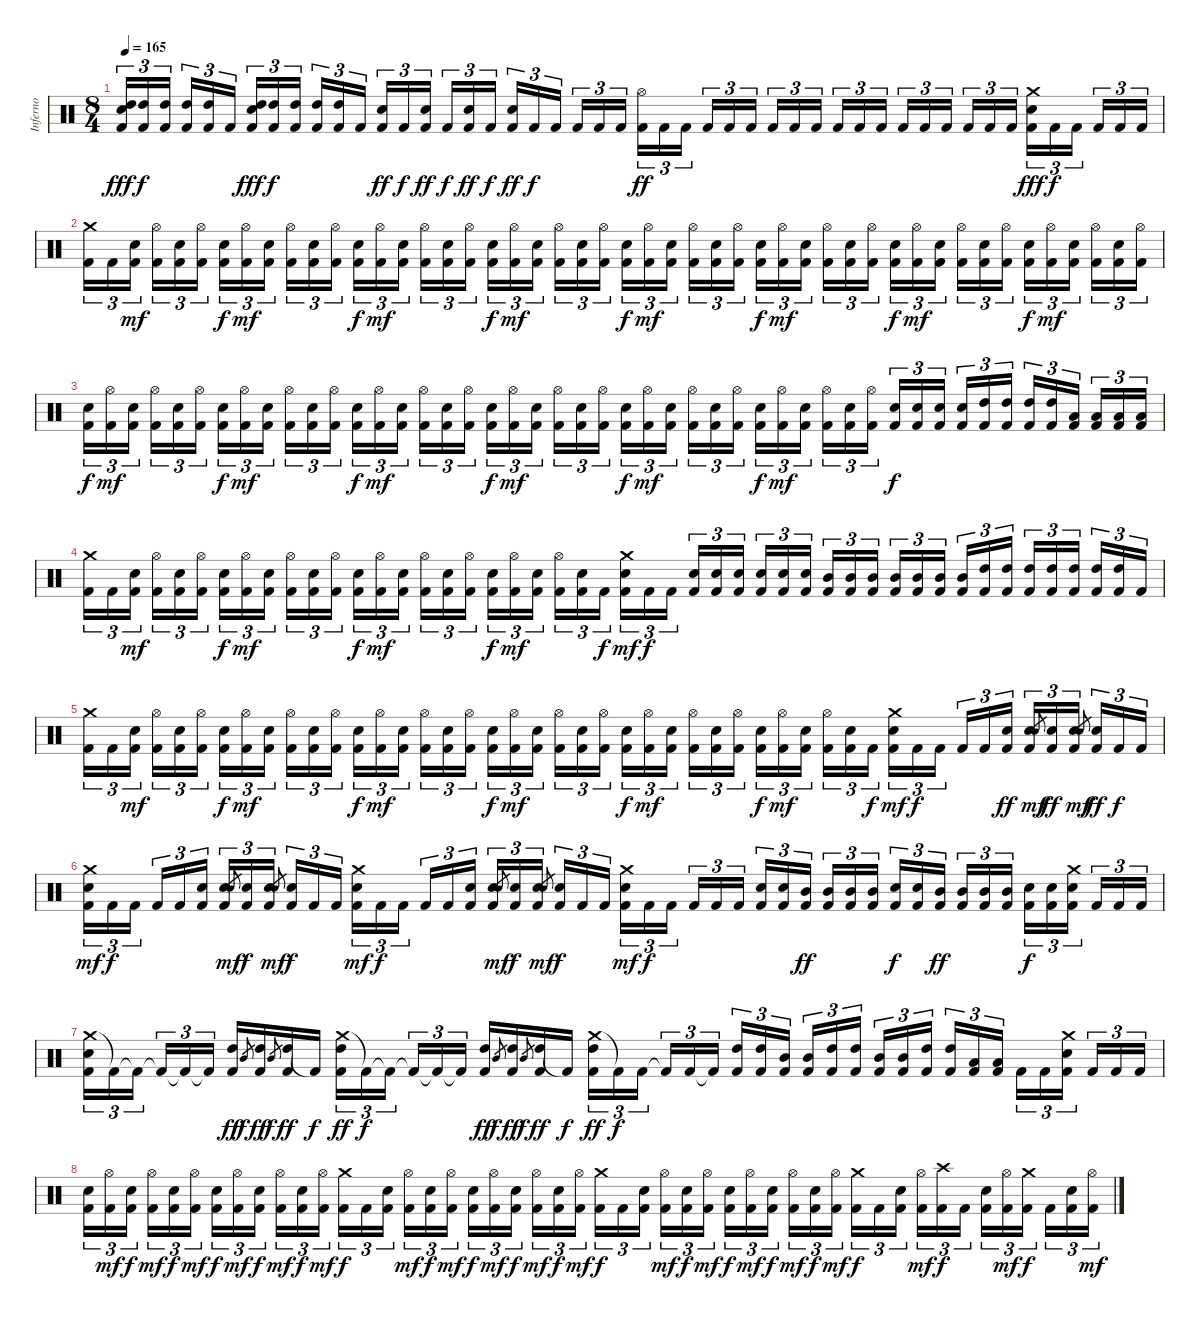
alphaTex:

\track ("Inferno" "Inferno") {instrument percussion}
\staff {score}
\articulation defaults
\ts (8 4)
\tempo 165
\clef neutral
\ks c
("Snare (hit) 2" "High Tom (hit)" "Kick (hit) 2").16{tu (3 2) dy fff} ("High Tom (hit)" "Kick (hit) 2").16{tu (3 2) dy f} ("High Tom (hit)" "Kick (hit) 2").16{tu (3 2) beam splitsecondary} ("High Tom (hit)" "Kick (hit) 2").16{tu (3 2)} ("High Tom (hit)" "Kick (hit) 2").16{tu (3 2)} "Kick (hit) 2".16{tu (3 2)} ("Snare (hit) 2" "High Tom (hit)" "Kick (hit) 2").16{tu (3 2) dy fff} ("High Tom (hit)" "Kick (hit) 2").16{tu (3 2) dy f} ("High Tom (hit)" "Kick (hit) 2").16{tu (3 2) beam splitsecondary} ("High Tom (hit)" "Kick (hit) 2").16{tu (3 2)} ("High Tom (hit)" "Kick (hit) 2").16{tu (3 2)} "Kick (hit) 2".16{tu (3 2)} ("Snare (hit) 2" "Kick (hit) 2").16{tu (3 2) dy ff} "Kick (hit) 2".16{tu (3 2) dy f} ("Snare (hit) 2" "Kick (hit) 2").16{tu (3 2) dy ff beam splitsecondary} "Kick (hit) 2".16{tu (3 2) dy f} ("Snare (hit) 2" "Kick (hit) 2").16{tu (3 2) dy ff} "Kick (hit) 2".16{tu (3 2) dy f} ("Snare (hit) 2" "Kick (hit) 2").16{tu (3 2) dy ff} "Kick (hit) 2".16{tu (3 2) dy f} "Kick (hit) 2".16{tu (3 2) beam splitsecondary} "Kick (hit) 2".16{tu (3 2)} "Kick (hit) 2".16{tu (3 2)} "Kick (hit) 2".16{tu (3 2)} ("Hi-Hat (open)" "Kick (hit) 2").16{tu (3 2) dy ff} "Kick (hit) 2".16{tu (3 2)} "Kick (hit) 2".16{tu (3 2) beam splitsecondary} "Kick (hit) 2".16{tu (3 2)} "Kick (hit) 2".16{tu (3 2)} "Kick (hit) 2".16{tu (3 2)} "Kick (hit) 2".16{tu (3 2)} "Kick (hit) 2".16{tu (3 2)} "Kick (hit) 2".16{tu (3 2) beam splitsecondary} "Kick (hit) 2".16{tu (3 2)} "Kick (hit) 2".16{tu (3 2)} "Kick (hit) 2".16{tu (3 2)} "Kick (hit) 2".16{tu (3 2)} "Kick (hit) 2".16{tu (3 2)} "Kick (hit) 2".16{tu (3 2) beam splitsecondary} "Kick (hit) 2".16{tu (3 2)} "Kick (hit) 2".16{tu (3 2)} "Kick (hit) 2".16{tu (3 2)} ("Crash medium (hit)" "Snare (hit) 2" "Kick (hit) 2").16{tu (3 2) dy fff} "Kick (hit) 2".16{tu (3 2) dy f} "Kick (hit) 2".16{tu (3 2) beam splitsecondary} "Kick (hit) 2".16{tu (3 2)} "Kick (hit) 2".16{tu (3 2)} "Kick (hit) 2".16{tu (3 2)} |
("Crash medium (hit)" "Kick (hit) 2").16{tu (3 2)} "Kick (hit) 2".16{tu (3 2)} ("Snare (hit) 2" "Kick (hit) 2").16{tu (3 2) dy mf beam splitsecondary} ("Hi-Hat (open)" "Kick (hit) 2").16{tu (3 2)} ("Snare (hit) 2" "Kick (hit) 2").16{tu (3 2)} ("Hi-Hat (open)" "Kick (hit) 2").16{tu (3 2)} ("Snare (hit) 2" "Kick (hit) 2").16{tu (3 2) dy f} ("Hi-Hat (open)" "Kick (hit) 2").16{tu (3 2) dy mf} ("Snare (hit) 2" "Kick (hit) 2").16{tu (3 2) beam splitsecondary} ("Hi-Hat (open)" "Kick (hit) 2").16{tu (3 2)} ("Snare (hit) 2" "Kick (hit) 2").16{tu (3 2)} ("Hi-Hat (open)" "Kick (hit) 2").16{tu (3 2)} ("Snare (hit) 2" "Kick (hit) 2").16{tu (3 2) dy f} ("Hi-Hat (open)" "Kick (hit) 2").16{tu (3 2) dy mf} ("Snare (hit) 2" "Kick (hit) 2").16{tu (3 2) beam splitsecondary} ("Hi-Hat (open)" "Kick (hit) 2").16{tu (3 2)} ("Snare (hit) 2" "Kick (hit) 2").16{tu (3 2)} ("Hi-Hat (open)" "Kick (hit) 2").16{tu (3 2)} ("Snare (hit) 2" "Kick (hit) 2").16{tu (3 2) dy f} ("Hi-Hat (open)" "Kick (hit) 2").16{tu (3 2) dy mf} ("Snare (hit) 2" "Kick (hit) 2").16{tu (3 2) beam splitsecondary} ("Hi-Hat (open)" "Kick (hit) 2").16{tu (3 2)} ("Snare (hit) 2" "Kick (hit) 2").16{tu (3 2)} ("Hi-Hat (open)" "Kick (hit) 2").16{tu (3 2)} ("Snare (hit) 2" "Kick (hit) 2").16{tu (3 2) dy f} ("Hi-Hat (open)" "Kick (hit) 2").16{tu (3 2) dy mf} ("Snare (hit) 2" "Kick (hit) 2").16{tu (3 2) beam splitsecondary} ("Hi-Hat (open)" "Kick (hit) 2").16{tu (3 2)} ("Snare (hit) 2" "Kick (hit) 2").16{tu (3 2)} ("Hi-Hat (open)" "Kick (hit) 2").16{tu (3 2)} ("Snare (hit) 2" "Kick (hit) 2").16{tu (3 2) dy f} ("Hi-Hat (open)" "Kick (hit) 2").16{tu (3 2) dy mf} ("Snare (hit) 2" "Kick (hit) 2").16{tu (3 2) beam splitsecondary} ("Hi-Hat (open)" "Kick (hit) 2").16{tu (3 2)} ("Snare (hit) 2" "Kick (hit) 2").16{tu (3 2)} ("Hi-Hat (open)" "Kick (hit) 2").16{tu (3 2)} ("Snare (hit) 2" "Kick (hit) 2").16{tu (3 2) dy f} ("Hi-Hat (open)" "Kick (hit) 2").16{tu (3 2) dy mf} ("Snare (hit) 2" "Kick (hit) 2").16{tu (3 2) beam splitsecondary} ("Hi-Hat (open)" "Kick (hit) 2").16{tu (3 2)} ("Snare (hit) 2" "Kick (hit) 2").16{tu (3 2)} ("Hi-Hat (open)" "Kick (hit) 2").16{tu (3 2)} ("Snare (hit) 2" "Kick (hit) 2").16{tu (3 2) dy f} ("Hi-Hat (open)" "Kick (hit) 2").16{tu (3 2) dy mf} ("Snare (hit) 2" "Kick (hit) 2").16{tu (3 2) beam splitsecondary} ("Hi-Hat (open)" "Kick (hit) 2").16{tu (3 2)} ("Snare (hit) 2" "Kick (hit) 2").16{tu (3 2)} ("Hi-Hat (open)" "Kick (hit) 2").16{tu (3 2)} |
("Snare (hit) 2" "Kick (hit) 2").16{tu (3 2) dy f} ("Hi-Hat (open)" "Kick (hit) 2").16{tu (3 2) dy mf} ("Snare (hit) 2" "Kick (hit) 2").16{tu (3 2) beam splitsecondary} ("Hi-Hat (open)" "Kick (hit) 2").16{tu (3 2)} ("Snare (hit) 2" "Kick (hit) 2").16{tu (3 2)} ("Hi-Hat (open)" "Kick (hit) 2").16{tu (3 2)} ("Snare (hit) 2" "Kick (hit) 2").16{tu (3 2) dy f} ("Hi-Hat (open)" "Kick (hit) 2").16{tu (3 2) dy mf} ("Snare (hit) 2" "Kick (hit) 2").16{tu (3 2) beam splitsecondary} ("Hi-Hat (open)" "Kick (hit) 2").16{tu (3 2)} ("Snare (hit) 2" "Kick (hit) 2").16{tu (3 2)} ("Hi-Hat (open)" "Kick (hit) 2").16{tu (3 2)} ("Snare (hit) 2" "Kick (hit) 2").16{tu (3 2) dy f} ("Hi-Hat (open)" "Kick (hit) 2").16{tu (3 2) dy mf} ("Snare (hit) 2" "Kick (hit) 2").16{tu (3 2) beam splitsecondary} ("Hi-Hat (open)" "Kick (hit) 2").16{tu (3 2)} ("Snare (hit) 2" "Kick (hit) 2").16{tu (3 2)} ("Hi-Hat (open)" "Kick (hit) 2").16{tu (3 2)} ("Snare (hit) 2" "Kick (hit) 2").16{tu (3 2) dy f} ("Hi-Hat (open)" "Kick (hit) 2").16{tu (3 2) dy mf} ("Snare (hit) 2" "Kick (hit) 2").16{tu (3 2) beam splitsecondary} ("Hi-Hat (open)" "Kick (hit) 2").16{tu (3 2)} ("Snare (hit) 2" "Kick (hit) 2").16{tu (3 2)} ("Hi-Hat (open)" "Kick (hit) 2").16{tu (3 2)} ("Snare (hit) 2" "Kick (hit) 2").16{tu (3 2) dy f} ("Hi-Hat (open)" "Kick (hit) 2").16{tu (3 2) dy mf} ("Snare (hit) 2" "Kick (hit) 2").16{tu (3 2) beam splitsecondary} ("Hi-Hat (open)" "Kick (hit) 2").16{tu (3 2)} ("Snare (hit) 2" "Kick (hit) 2").16{tu (3 2)} ("Hi-Hat (open)" "Kick (hit) 2").16{tu (3 2)} ("Snare (hit) 2" "Kick (hit) 2").16{tu (3 2) dy f} ("Hi-Hat (open)" "Kick (hit) 2").16{tu (3 2) dy mf} ("Snare (hit) 2" "Kick (hit) 2").16{tu (3 2) beam splitsecondary} ("Hi-Hat (open)" "Kick (hit) 2").16{tu (3 2)} ("Snare (hit) 2" "Kick (hit) 2").16{tu (3 2)} ("Hi-Hat (open)" "Kick (hit) 2").16{tu (3 2)} ("Snare (hit) 2" "Kick (hit) 2").16{tu (3 2) dy f} ("Snare (hit) 2" "Kick (hit) 2").16{tu (3 2)} ("Snare (hit) 2" "Kick (hit) 2").16{tu (3 2) beam splitsecondary} ("Snare (hit) 2" "Kick (hit) 2").16{tu (3 2)} ("High Tom (hit)" "Kick (hit) 2").16{tu (3 2)} ("High Tom (hit)" "Kick (hit) 2").16{tu (3 2)} ("High Tom (hit)" "Kick (hit) 2").16{tu (3 2)} ("High Tom (hit)" "Kick (hit) 2").16{tu (3 2)} ("Low Tom (hit)" "Kick (hit) 2").16{tu (3 2) beam splitsecondary} ("Low Tom (hit)" "Kick (hit) 2").16{tu (3 2)} ("Low Tom (hit)" "Kick (hit) 2").16{tu (3 2)} ("Low Tom (hit)" "Kick (hit) 2").16{tu (3 2)} |
("Crash medium (hit)" "Kick (hit) 2").16{tu (3 2)} "Kick (hit) 2".16{tu (3 2)} ("Snare (hit) 2" "Kick (hit) 2").16{tu (3 2) dy mf beam splitsecondary} ("Hi-Hat (open)" "Kick (hit) 2").16{tu (3 2)} ("Snare (hit) 2" "Kick (hit) 2").16{tu (3 2)} ("Hi-Hat (open)" "Kick (hit) 2").16{tu (3 2)} ("Snare (hit) 2" "Kick (hit) 2").16{tu (3 2) dy f} ("Hi-Hat (open)" "Kick (hit) 2").16{tu (3 2) dy mf} ("Snare (hit) 2" "Kick (hit) 2").16{tu (3 2) beam splitsecondary} ("Hi-Hat (open)" "Kick (hit) 2").16{tu (3 2)} ("Snare (hit) 2" "Kick (hit) 2").16{tu (3 2)} ("Hi-Hat (open)" "Kick (hit) 2").16{tu (3 2)} ("Snare (hit) 2" "Kick (hit) 2").16{tu (3 2) dy f} ("Hi-Hat (open)" "Kick (hit) 2").16{tu (3 2) dy mf} ("Snare (hit) 2" "Kick (hit) 2").16{tu (3 2) beam splitsecondary} ("Hi-Hat (open)" "Kick (hit) 2").16{tu (3 2)} ("Snare (hit) 2" "Kick (hit) 2").16{tu (3 2)} ("Hi-Hat (open)" "Kick (hit) 2").16{tu (3 2)} ("Snare (hit) 2" "Kick (hit) 2").16{tu (3 2) dy f} ("Hi-Hat (open)" "Kick (hit) 2").16{tu (3 2) dy mf} ("Snare (hit) 2" "Kick (hit) 2").16{tu (3 2) beam splitsecondary} ("Hi-Hat (open)" "Kick (hit) 2").16{tu (3 2)} ("Snare (hit) 2" "Kick (hit) 2").16{tu (3 2)} "Kick (hit) 2".16{tu (3 2) dy f} ("Snare (hit) 2" "Crash medium (hit)" "Kick (hit) 2").16{tu (3 2) dy mf} "Kick (hit) 2".16{tu (3 2) dy f} "Kick (hit) 2".16{tu (3 2) beam splitsecondary} ("Snare (hit) 2" "Kick (hit) 2").16{tu (3 2)} ("Snare (hit) 2" "Kick (hit) 2").16{tu (3 2)} ("Snare (hit) 2" "Kick (hit) 2").16{tu (3 2)} ("Snare (hit) 2" "Kick (hit) 2").16{tu (3 2)} ("Snare (hit) 2" "Kick (hit) 2").16{tu (3 2)} ("Snare (hit) 2" "Kick (hit) 2").16{tu (3 2) beam splitsecondary} ("Mid Tom (hit)" "Kick (hit) 2").16{tu (3 2)} ("Mid Tom (hit)" "Kick (hit) 2").16{tu (3 2)} ("Mid Tom (hit)" "Kick (hit) 2").16{tu (3 2)} ("Mid Tom (hit)" "Kick (hit) 2").16{tu (3 2)} ("Mid Tom (hit)" "Kick (hit) 2").16{tu (3 2)} ("Mid Tom (hit)" "Kick (hit) 2").16{tu (3 2) beam splitsecondary} ("Mid Tom (hit)" "Kick (hit) 2").16{tu (3 2)} ("High Tom (hit)" "Kick (hit) 2").16{tu (3 2)} ("High Tom (hit)" "Kick (hit) 2").16{tu (3 2)} ("High Tom (hit)" "Kick (hit) 2").16{tu (3 2)} ("High Tom (hit)" "Kick (hit) 2").16{tu (3 2)} ("High Tom (hit)" "Kick (hit) 2").16{tu (3 2) beam splitsecondary} ("High Tom (hit)" "Kick (hit) 2").16{tu (3 2)} ("High Tom (hit)" "Kick (hit) 2").16{tu (3 2)} "Kick (hit) 2".16{tu (3 2)} |
("Crash medium (hit)" "Kick (hit) 2").16{tu (3 2)} "Kick (hit) 2".16{tu (3 2)} ("Snare (hit) 2" "Kick (hit) 2").16{tu (3 2) dy mf beam splitsecondary} ("Hi-Hat (open)" "Kick (hit) 2").16{tu (3 2)} ("Snare (hit) 2" "Kick (hit) 2").16{tu (3 2)} ("Hi-Hat (open)" "Kick (hit) 2").16{tu (3 2)} ("Snare (hit) 2" "Kick (hit) 2").16{tu (3 2) dy f} ("Hi-Hat (open)" "Kick (hit) 2").16{tu (3 2) dy mf} ("Snare (hit) 2" "Kick (hit) 2").16{tu (3 2) beam splitsecondary} ("Hi-Hat (open)" "Kick (hit) 2").16{tu (3 2)} ("Snare (hit) 2" "Kick (hit) 2").16{tu (3 2)} ("Hi-Hat (open)" "Kick (hit) 2").16{tu (3 2)} ("Snare (hit) 2" "Kick (hit) 2").16{tu (3 2) dy f} ("Hi-Hat (open)" "Kick (hit) 2").16{tu (3 2) dy mf} ("Snare (hit) 2" "Kick (hit) 2").16{tu (3 2) beam splitsecondary} ("Hi-Hat (open)" "Kick (hit) 2").16{tu (3 2)} ("Snare (hit) 2" "Kick (hit) 2").16{tu (3 2)} ("Hi-Hat (open)" "Kick (hit) 2").16{tu (3 2)} ("Snare (hit) 2" "Kick (hit) 2").16{tu (3 2) dy f} ("Hi-Hat (open)" "Kick (hit) 2").16{tu (3 2) dy mf} ("Snare (hit) 2" "Kick (hit) 2").16{tu (3 2) beam splitsecondary} ("Hi-Hat (open)" "Kick (hit) 2").16{tu (3 2)} ("Snare (hit) 2" "Kick (hit) 2").16{tu (3 2)} ("Hi-Hat (open)" "Kick (hit) 2").16{tu (3 2)} ("Snare (hit) 2" "Kick (hit) 2").16{tu (3 2) dy f} ("Hi-Hat (open)" "Kick (hit) 2").16{tu (3 2) dy mf} ("Snare (hit) 2" "Kick (hit) 2").16{tu (3 2) beam splitsecondary} ("Hi-Hat (open)" "Kick (hit) 2").16{tu (3 2)} ("Snare (hit) 2" "Kick (hit) 2").16{tu (3 2)} ("Hi-Hat (open)" "Kick (hit) 2").16{tu (3 2)} ("Snare (hit) 2" "Kick (hit) 2").16{tu (3 2) dy f} ("Hi-Hat (open)" "Kick (hit) 2").16{tu (3 2) dy mf} ("Snare (hit) 2" "Kick (hit) 2").16{tu (3 2) beam splitsecondary} ("Hi-Hat (open)" "Kick (hit) 2").16{tu (3 2)} ("Snare (hit) 2" "Kick (hit) 2").16{tu (3 2)} "Kick (hit) 2".16{tu (3 2) dy f} ("Crash medium (hit)" "Snare (hit) 2" "Kick (hit) 2").16{tu (3 2) dy mf} "Kick (hit) 2".16{tu (3 2) dy f} "Kick (hit) 2".16{tu (3 2) beam splitsecondary} "Kick (hit) 2".16{tu (3 2)} "Kick (hit) 2".16{tu (3 2)} ("Snare (hit) 2" "Kick (hit) 2").16{tu (3 2) dy ff} ("Snare (hit) 2" "Kick (hit) 2").16{tu (3 2)} "Snare (hit) 2".8{gr dy mf} ("Snare (hit) 2" "Kick (hit) 2").16{tu (3 2) dy ff} ("Snare (hit) 2" "Kick (hit) 2").16{tu (3 2)} "Snare (hit) 2".8{gr dy mf beam splitsecondary} ("Snare (hit) 2" "Kick (hit) 2").16{tu (3 2) dy ff} "Kick (hit) 2".16{tu (3 2) dy f} "Kick (hit) 2".16{tu (3 2)} |
("Crash medium (hit)" "Snare (hit) 2" "Kick (hit) 2").16{tu (3 2) dy mf} "Kick (hit) 2".16{tu (3 2) dy f} "Kick (hit) 2".16{tu (3 2) beam splitsecondary} "Kick (hit) 2".16{tu (3 2)} "Kick (hit) 2".16{tu (3 2)} ("Snare (hit) 2" "Kick (hit) 2").16{tu (3 2)} ("Snare (hit) 2" "Kick (hit) 2").16{tu (3 2)} "Snare (hit) 2".8{gr dy mf} ("Snare (hit) 2" "Kick (hit) 2").16{tu (3 2) dy f} ("Snare (hit) 2" "Kick (hit) 2").16{tu (3 2)} "Snare (hit) 2".8{gr dy mf beam splitsecondary} ("Snare (hit) 2" "Kick (hit) 2").16{tu (3 2) dy f} "Kick (hit) 2".16{tu (3 2)} "Kick (hit) 2".16{tu (3 2)} ("Crash medium (hit)" "Snare (hit) 2" "Kick (hit) 2").16{tu (3 2) dy mf} "Kick (hit) 2".16{tu (3 2) dy f} "Kick (hit) 2".16{tu (3 2) beam splitsecondary} "Kick (hit) 2".16{tu (3 2)} "Kick (hit) 2".16{tu (3 2)} ("Snare (hit) 2" "Kick (hit) 2").16{tu (3 2)} ("Snare (hit) 2" "Kick (hit) 2").16{tu (3 2)} "Snare (hit) 2".8{gr dy mf} ("Snare (hit) 2" "Kick (hit) 2").16{tu (3 2) dy f} ("Snare (hit) 2" "Kick (hit) 2").16{tu (3 2)} "Snare (hit) 2".8{gr dy mf beam splitsecondary} ("Snare (hit) 2" "Kick (hit) 2").16{tu (3 2) dy f} "Kick (hit) 2".16{tu (3 2)} "Kick (hit) 2".16{tu (3 2)} ("Crash medium (hit)" "Snare (hit) 2" "Kick (hit) 2").16{tu (3 2) dy mf} "Kick (hit) 2".16{tu (3 2) dy f} "Kick (hit) 2".16{tu (3 2) beam splitsecondary} "Kick (hit) 2".16{tu (3 2)} "Kick (hit) 2".16{tu (3 2)} "Kick (hit) 2".16{tu (3 2)} ("Snare (hit) 2" "Kick (hit) 2").16{tu (3 2)} ("Snare (hit) 2" "Kick (hit) 2").16{tu (3 2)} ("Mid Tom (hit)" "Kick (hit) 2").16{tu (3 2) dy ff beam splitsecondary} ("Mid Tom (hit)" "Kick (hit) 2").16{tu (3 2)} ("Mid Tom (hit)" "Kick (hit) 2").16{tu (3 2)} ("Mid Tom (hit)" "Kick (hit) 2").16{tu (3 2)} ("Snare (hit) 2" "Kick (hit) 2").16{tu (3 2) dy f} ("Snare (hit) 2" "Kick (hit) 2").16{tu (3 2)} ("Mid Tom (hit)" "Kick (hit) 2").16{tu (3 2) dy ff beam splitsecondary} ("Mid Tom (hit)" "Kick (hit) 2").16{tu (3 2)} ("Mid Tom (hit)" "Kick (hit) 2").16{tu (3 2)} ("Mid Tom (hit)" "Kick (hit) 2").16{tu (3 2)} ("Snare (hit) 2" "Kick (hit) 2").16{tu (3 2) dy f} ("Snare (hit) 2" "Kick (hit) 2").16{tu (3 2)} ("Crash medium (hit)" "Snare (hit) 2" "Kick (hit) 2").16{tu (3 2) beam splitsecondary} "Kick (hit) 2".16{tu (3 2)} "Kick (hit) 2".16{tu (3 2)} "Kick (hit) 2".16{tu (3 2)} |
("Crash medium (hit)" "Snare (hit) 2" "Kick (hit) 2").16{tu (3 2)} "Kick (hit) 2"{t}.16{tu (3 2)} "Kick (hit) 2"{t}.16{tu (3 2) beam splitsecondary} "Kick (hit) 2"{t}.16{tu (3 2)} "Kick (hit) 2"{t}.16{tu (3 2)} "Kick (hit) 2"{t}.16{tu (3 2)} ("High Tom (hit)" "Kick (hit) 2").16{dy ff} "Mid Tom (hit)".8{gr dy f} ("High Tom (hit)" "Kick (hit) 2").16{dy ff} "Mid Tom (hit)".8{gr dy f} ("High Tom (hit)" "Kick (hit) 2").16{dy ff} "Kick (hit) 2"{t}.16{dy f} ("Crash medium (hit)" "High Tom (hit)" "Kick (hit) 2").16{tu (3 2) dy ff} "Kick (hit) 2"{t}.16{tu (3 2) dy f} "Kick (hit) 2"{t}.16{tu (3 2) beam splitsecondary} "Kick (hit) 2"{t}.16{tu (3 2)} "Kick (hit) 2"{t}.16{tu (3 2)} "Kick (hit) 2"{t}.16{tu (3 2)} ("High Tom (hit)" "Kick (hit) 2").16{dy ff} "Mid Tom (hit)".8{gr dy f} ("High Tom (hit)" "Kick (hit) 2").16{dy ff} "Mid Tom (hit)".8{gr dy f} ("High Tom (hit)" "Kick (hit) 2").16{dy ff} "Kick (hit) 2"{t}.16{dy f} ("Crash medium (hit)" "High Tom (hit)" "Kick (hit) 2").16{tu (3 2) dy ff} "Kick (hit) 2"{t}.16{tu (3 2) dy f} "Kick (hit) 2".16{tu (3 2) beam splitsecondary} "Kick (hit) 2"{t}.16{tu (3 2)} "Kick (hit) 2".16{tu (3 2)} "Kick (hit) 2"{t}.16{tu (3 2)} ("High Tom (hit)" "Kick (hit) 2").16{tu (3 2)} ("High Tom (hit)" "Kick (hit) 2").16{tu (3 2)} ("Mid Tom (hit)" "Kick (hit) 2").16{tu (3 2) beam splitsecondary} ("Mid Tom (hit)" "Kick (hit) 2").16{tu (3 2)} ("High Tom (hit)" "Kick (hit) 2").16{tu (3 2)} ("High Tom (hit)" "Kick (hit) 2").16{tu (3 2)} ("Mid Tom (hit)" "Kick (hit) 2").16{tu (3 2)} ("Mid Tom (hit)" "Kick (hit) 2").16{tu (3 2)} ("High Tom (hit)" "Kick (hit) 2").16{tu (3 2) beam splitsecondary} ("High Tom (hit)" "Kick (hit) 2").16{tu (3 2)} ("Low Tom (hit)" "Kick (hit) 2").16{tu (3 2)} ("Low Tom (hit)" "Kick (hit) 2").16{tu (3 2)} "Kick (hit) 2".16{tu (3 2)} "Kick (hit) 2".16{tu (3 2)} ("Crash medium (hit)" "Snare (hit) 2" "Kick (hit) 2").16{tu (3 2) beam splitsecondary} "Kick (hit) 2".16{tu (3 2)} "Kick (hit) 2".16{tu (3 2)} "Kick (hit) 2".16{tu (3 2)} |
("Snare (hit) 2" "Kick (hit) 2").16{tu (3 2)} ("Hi-Hat (open)" "Kick (hit) 2").16{tu (3 2) dy mf} ("Snare (hit) 2" "Kick (hit) 2").16{tu (3 2) dy f beam splitsecondary} ("Hi-Hat (open)" "Kick (hit) 2").16{tu (3 2) dy mf} ("Snare (hit) 2" "Kick (hit) 2").16{tu (3 2) dy f} ("Hi-Hat (open)" "Kick (hit) 2").16{tu (3 2) dy mf} ("Snare (hit) 2" "Kick (hit) 2").16{tu (3 2) dy f} ("Hi-Hat (open)" "Kick (hit) 2").16{tu (3 2) dy mf} ("Snare (hit) 2" "Kick (hit) 2").16{tu (3 2) dy f beam splitsecondary} ("Hi-Hat (open)" "Kick (hit) 2").16{tu (3 2) dy mf} ("Snare (hit) 2" "Kick (hit) 2").16{tu (3 2) dy f} ("Hi-Hat (open)" "Kick (hit) 2").16{tu (3 2) dy mf} ("Crash medium (hit)" "Kick (hit) 2").16{tu (3 2) dy f} "Kick (hit) 2".16{tu (3 2)} ("Snare (hit) 2" "Kick (hit) 2").16{tu (3 2) beam splitsecondary} ("Hi-Hat (open)" "Kick (hit) 2").16{tu (3 2) dy mf} ("Snare (hit) 2" "Kick (hit) 2").16{tu (3 2) dy f} ("Hi-Hat (open)" "Kick (hit) 2").16{tu (3 2) dy mf} ("Snare (hit) 2" "Kick (hit) 2").16{tu (3 2) dy f} ("Hi-Hat (open)" "Kick (hit) 2").16{tu (3 2) dy mf} ("Snare (hit) 2" "Kick (hit) 2").16{tu (3 2) dy f beam splitsecondary} ("Hi-Hat (open)" "Kick (hit) 2").16{tu (3 2) dy mf} ("Snare (hit) 2" "Kick (hit) 2").16{tu (3 2) dy f} ("Hi-Hat (open)" "Kick (hit) 2").16{tu (3 2) dy mf} ("Crash medium (hit)" "Kick (hit) 2").16{tu (3 2) dy f} "Kick (hit) 2".16{tu (3 2)} ("Snare (hit) 2" "Kick (hit) 2").16{tu (3 2) beam splitsecondary} ("Hi-Hat (open)" "Kick (hit) 2").16{tu (3 2) dy mf} ("Snare (hit) 2" "Kick (hit) 2").16{tu (3 2) dy f} ("Hi-Hat (open)" "Kick (hit) 2").16{tu (3 2) dy mf} ("Snare (hit) 2" "Kick (hit) 2").16{tu (3 2) dy f} ("Hi-Hat (open)" "Kick (hit) 2").16{tu (3 2) dy mf} ("Snare (hit) 2" "Kick (hit) 2").16{tu (3 2) dy f beam splitsecondary} ("Hi-Hat (open)" "Kick (hit) 2").16{tu (3 2) dy mf} ("Snare (hit) 2" "Kick (hit) 2").16{tu (3 2) dy f} ("Hi-Hat (open)" "Kick (hit) 2").16{tu (3 2) dy mf} ("Crash medium (hit)" "Kick (hit) 2").16{tu (3 2) dy f} "Kick (hit) 2".16{tu (3 2)} ("Snare (hit) 2" "Kick (hit) 2").16{tu (3 2) beam splitsecondary} ("Hi-Hat (open)" "Kick (hit) 2").16{tu (3 2) dy mf} ("Crash high (hit)" "Kick (hit) 2").16{tu (3 2) dy f} "Kick (hit) 2".16{tu (3 2)} ("Snare (hit) 2" "Kick (hit) 2").16{tu (3 2)} ("Hi-Hat (open)" "Kick (hit) 2").16{tu (3 2) dy mf} ("Crash medium (hit)" "Kick (hit) 2").16{tu (3 2) dy f beam splitsecondary} "Kick (hit) 2".16{tu (3 2)} ("Snare (hit) 2" "Kick (hit) 2").16{tu (3 2)} ("Hi-Hat (open)" "Kick (hit) 2").16{tu (3 2) dy mf}
